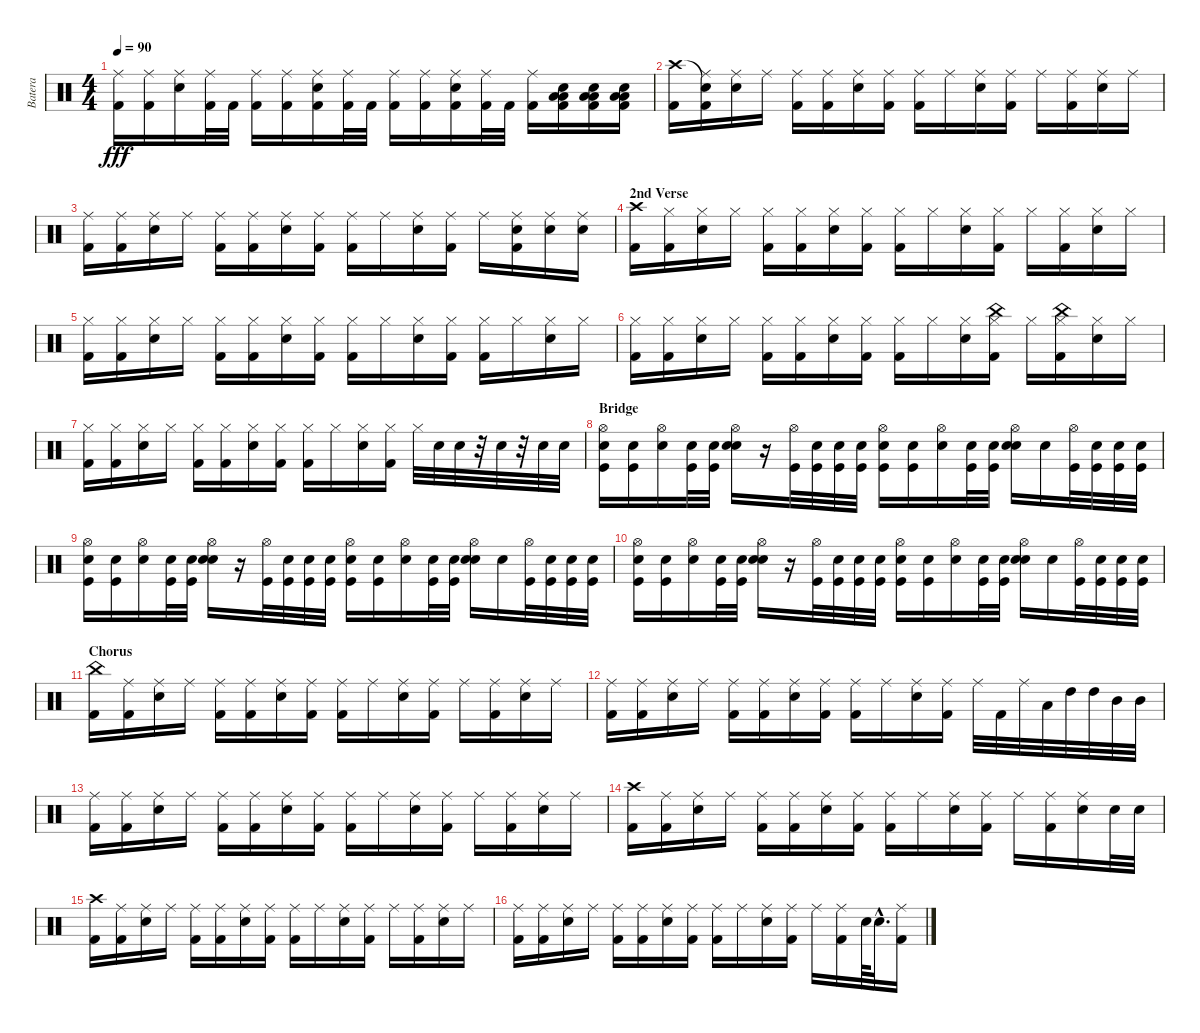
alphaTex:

\track ("Batera" "Batera") {instrument percussion}
\staff {score}
\articulation defaults
\ts (4 4)
\tempo 90
\clef neutral
\ks c
("Kick (hit) 2" "Ride (middle)").16{dy fff} ("Kick (hit) 2" "Ride (middle)").16 ("Snare (hit) 2" "Ride (middle)").16 ("Kick (hit) 2" "Ride (middle)").32 "Kick (hit) 2".32 ("Kick (hit) 2" "Ride (middle)").16 ("Kick (hit) 2" "Ride (middle)").16 ("Snare (hit) 2" "Kick (hit) 2" "Ride (middle)").16 ("Kick (hit) 2" "Ride (middle)").32 "Kick (hit) 2".32 ("Kick (hit) 2" "Ride (middle)").16 ("Kick (hit) 2" "Ride (middle)").16 ("Snare (hit) 2" "Kick (hit) 2" "Ride (middle)").16 ("Kick (hit) 2" "Ride (middle)").32 "Kick (hit) 2".32 ("Kick (hit) 2" "Ride (middle)").16 ("Low Floor Tom (hit)" "Snare (hit) 2" "Kick (hit) 2" "Low Floor Tom (hit)").16 ("Low Floor Tom (hit)" "Snare (hit) 2" "Kick (hit) 2" "Low Floor Tom (hit)").16 ("Low Floor Tom (hit)" "Snare (hit) 2" "Kick (hit) 2" "Low Floor Tom (hit)").16 |
("Crash high (hit)" "Kick (hit) 2").16 ("Snare (hit)"{t} "Kick (hit) 2" "Ride (middle)").16 ("Snare (hit) 2" "Ride (middle)").16 "Ride (middle)".16 ("Kick (hit) 2" "Ride (middle)").16 ("Kick (hit) 2" "Ride (middle)").16 ("Snare (hit) 2" "Ride (middle)").16 ("Kick (hit) 2" "Ride (middle)").16 ("Kick (hit) 2" "Ride (middle)").16 "Ride (middle)".16 ("Snare (hit) 2" "Ride (middle)").16 ("Kick (hit) 2" "Ride (middle)").16 "Ride (middle)".16 ("Kick (hit) 2" "Ride (middle)").16 ("Snare (hit) 2" "Ride (middle)").16 "Ride (middle)".16 |
("Kick (hit) 2" "Ride (middle)").16 ("Kick (hit) 2" "Ride (middle)").16 ("Snare (hit) 2" "Ride (middle)").16 "Ride (middle)".16 ("Kick (hit) 2" "Ride (middle)").16 ("Kick (hit) 2" "Ride (middle)").16 ("Snare (hit) 2" "Ride (middle)").16 ("Kick (hit) 2" "Ride (middle)").16 ("Kick (hit) 2" "Ride (middle)").16 "Ride (middle)".16 ("Snare (hit) 2" "Ride (middle)").16 ("Kick (hit) 2" "Ride (middle)").16 "Ride (middle)".16 ("Snare (hit) 2" "Kick (hit) 2" "Ride (middle)").16 ("Snare (hit) 2" "Ride (middle)").16 ("Snare (hit) 2" "Ride (middle)").16 |
\section ("" "2nd Verse")
("Crash high (hit)" "Kick (hit) 2").16 ("Kick (hit) 2" "Hi-Hat (closed)").16 ("Snare (hit) 2" "Hi-Hat (closed)").16 "Hi-Hat (closed)".16 ("Kick (hit) 2" "Hi-Hat (closed)").16 ("Kick (hit) 2" "Hi-Hat (closed)").16 ("Snare (hit) 2" "Hi-Hat (closed)").16 ("Kick (hit) 2" "Hi-Hat (closed)").16 ("Kick (hit) 2" "Hi-Hat (closed)").16 "Hi-Hat (closed)".16 ("Snare (hit) 2" "Hi-Hat (closed)").16 ("Kick (hit) 2" "Hi-Hat (closed)").16 "Hi-Hat (closed)".16 ("Kick (hit) 2" "Hi-Hat (closed)").16 ("Snare (hit) 2" "Hi-Hat (closed)").16 "Hi-Hat (closed)".16 |
("Kick (hit) 2" "Hi-Hat (closed)").16 ("Kick (hit) 2" "Hi-Hat (closed)").16 ("Snare (hit) 2" "Hi-Hat (closed)").16 "Hi-Hat (closed)".16 ("Kick (hit) 2" "Hi-Hat (closed)").16 ("Kick (hit) 2" "Hi-Hat (closed)").16 ("Snare (hit) 2" "Hi-Hat (closed)").16 ("Kick (hit) 2" "Hi-Hat (closed)").16 ("Kick (hit) 2" "Hi-Hat (closed)").16 "Hi-Hat (closed)".16 ("Snare (hit) 2" "Hi-Hat (closed)").16 ("Kick (hit) 2" "Hi-Hat (closed)").16 ("Kick (hit) 2" "Hi-Hat (closed)").16 "Hi-Hat (closed)".16 ("Snare (hit) 2" "Hi-Hat (closed)").16 "Hi-Hat (closed)".16 |
("Kick (hit) 2" "Hi-Hat (closed)").16 ("Kick (hit) 2" "Hi-Hat (closed)").16 ("Snare (hit) 2" "Hi-Hat (closed)").16 "Hi-Hat (closed)".16 ("Kick (hit) 2" "Hi-Hat (closed)").16 ("Kick (hit) 2" "Hi-Hat (closed)").16 ("Snare (hit) 2" "Hi-Hat (closed)").16 ("Kick (hit) 2" "Hi-Hat (closed)").16 ("Kick (hit) 2" "Hi-Hat (closed)").16 "Hi-Hat (closed)".16 ("Snare (hit) 2" "Hi-Hat (closed)").16 ("China (hit)" "Kick (hit) 2" "Hi-Hat (closed)").16 "Hi-Hat (closed)".16 ("China (hit)" "Kick (hit) 2" "Hi-Hat (closed)").16 ("Snare (hit) 2" "Hi-Hat (closed)").16 "Hi-Hat (closed)".16 |
("Kick (hit) 2" "Hi-Hat (closed)").16 ("Kick (hit) 2" "Hi-Hat (closed)").16 ("Snare (hit) 2" "Hi-Hat (closed)").16 "Hi-Hat (closed)".16 ("Kick (hit) 2" "Hi-Hat (closed)").16 ("Kick (hit) 2" "Hi-Hat (closed)").16 ("Snare (hit) 2" "Hi-Hat (closed)").16 ("Kick (hit) 2" "Hi-Hat (closed)").16 ("Kick (hit) 2" "Hi-Hat (closed)").16 "Hi-Hat (closed)".16 ("Snare (hit) 2" "Hi-Hat (closed)").16 ("Kick (hit) 2" "Hi-Hat (closed)").16 "Hi-Hat (closed)".32 "Snare (hit) 2".32 "Snare (hit) 2".32 r.32 "Snare (hit) 2".32 r.32 "Snare (hit) 2".32 "Snare (hit) 2".32 |
\section ("" "Bridge")
("Snare (hit)" "Kick (hit)" "Hi-Hat (open)").16 ("Snare (hit)" "Kick (hit)").16 ("Snare (hit)" "Hi-Hat (open)").16 ("Snare (hit)" "Kick (hit)").32 ("Snare (hit)" "Kick (hit)").32 ("Snare (hit)" "Snare (hit) 2" "Hi-Hat (open)").16 r.16 ("Kick (hit)" "Hi-Hat (open)").32 ("Snare (hit)" "Kick (hit)").32 ("Snare (hit)" "Kick (hit)").32 ("Snare (hit)" "Kick (hit)").32 ("Snare (hit)" "Kick (hit)" "Hi-Hat (open)").16 ("Snare (hit)" "Kick (hit)").16 ("Snare (hit)" "Hi-Hat (open)").16 ("Snare (hit)" "Kick (hit)").32 ("Snare (hit)" "Kick (hit)").32 ("Snare (hit)" "Snare (hit) 2" "Hi-Hat (open)").16 "Snare (hit) 2".16 ("Kick (hit)" "Hi-Hat (open)").32 ("Snare (hit)" "Kick (hit)").32 ("Snare (hit)" "Kick (hit)").32 ("Snare (hit)" "Kick (hit)").32 |
("Snare (hit)" "Kick (hit)" "Hi-Hat (open)").16 ("Snare (hit)" "Kick (hit)").16 ("Snare (hit)" "Hi-Hat (open)").16 ("Snare (hit)" "Kick (hit)").32 ("Snare (hit)" "Kick (hit)").32 ("Snare (hit)" "Snare (hit) 2" "Hi-Hat (open)").16 r.16 ("Kick (hit)" "Hi-Hat (open)").32 ("Snare (hit)" "Kick (hit)").32 ("Snare (hit)" "Kick (hit)").32 ("Snare (hit)" "Kick (hit)").32 ("Snare (hit)" "Kick (hit)" "Hi-Hat (open)").16 ("Snare (hit)" "Kick (hit)").16 ("Snare (hit)" "Hi-Hat (open)").16 ("Snare (hit)" "Kick (hit)").32 ("Snare (hit)" "Kick (hit)").32 ("Snare (hit)" "Snare (hit) 2" "Hi-Hat (open)").16 "Snare (hit) 2".16 ("Kick (hit)" "Hi-Hat (open)").32 ("Snare (hit)" "Kick (hit)").32 ("Snare (hit)" "Kick (hit)").32 ("Snare (hit)" "Kick (hit)").32 |
("Snare (hit)" "Kick (hit)" "Hi-Hat (open)").16 ("Snare (hit)" "Kick (hit)").16 ("Snare (hit)" "Hi-Hat (open)").16 ("Snare (hit)" "Kick (hit)").32 ("Snare (hit)" "Kick (hit)").32 ("Snare (hit)" "Snare (hit) 2" "Hi-Hat (open)").16 r.16 ("Kick (hit)" "Hi-Hat (open)").32 ("Snare (hit)" "Kick (hit)").32 ("Snare (hit)" "Kick (hit)").32 ("Snare (hit)" "Kick (hit)").32 ("Snare (hit)" "Kick (hit)" "Hi-Hat (open)").16 ("Snare (hit)" "Kick (hit)").16 ("Snare (hit)" "Hi-Hat (open)").16 ("Snare (hit)" "Kick (hit)").32 ("Snare (hit)" "Kick (hit)").32 ("Snare (hit)" "Snare (hit) 2" "Hi-Hat (open)").16 "Snare (hit) 2".16 ("Kick (hit)" "Hi-Hat (open)").32 ("Snare (hit)" "Kick (hit)").32 ("Snare (hit)" "Kick (hit)").32 ("Snare (hit)" "Kick (hit)").32 |
\section ("" "Chorus")
("China (hit)" "Kick (hit) 2").16 ("Kick (hit) 2" "Ride (middle)").16 ("Snare (hit) 2" "Ride (middle)").16 "Ride (middle)".16 ("Kick (hit) 2" "Ride (middle)").16 ("Kick (hit) 2" "Ride (middle)").16 ("Snare (hit) 2" "Ride (middle)").16 ("Kick (hit) 2" "Ride (middle)").16 ("Kick (hit) 2" "Ride (middle)").16 "Ride (middle)".16 ("Snare (hit) 2" "Ride (middle)").16 ("Kick (hit) 2" "Ride (middle)").16 "Ride (middle)".16 ("Kick (hit) 2" "Ride (middle)").16 ("Snare (hit) 2" "Ride (middle)").16 "Ride (middle)".16 |
("Kick (hit) 2" "Ride (middle)").16 ("Kick (hit) 2" "Ride (middle)").16 ("Snare (hit) 2" "Ride (middle)").16 "Ride (middle)".16 ("Kick (hit) 2" "Ride (middle)").16 ("Kick (hit) 2" "Ride (middle)").16 ("Snare (hit) 2" "Ride (middle)").16 ("Kick (hit) 2" "Ride (middle)").16 ("Kick (hit) 2" "Ride (middle)").16 "Ride (middle)".16 ("Snare (hit) 2" "Ride (middle)").16 ("Kick (hit) 2" "Ride (middle)").16 "Ride (middle)".32 "Kick (hit) 2".32 "Ride (middle)".32 "Low Floor Tom (hit)".32 "High Tom (hit)".32 "High Tom (hit)".32 "Mid Tom (hit)".32 "Mid Tom (hit)".32 |
("Kick (hit) 2" "Ride (middle)").16 ("Kick (hit) 2" "Ride (middle)").16 ("Snare (hit) 2" "Ride (middle)").16 "Ride (middle)".16 ("Kick (hit) 2" "Ride (middle)").16 ("Kick (hit) 2" "Ride (middle)").16 ("Snare (hit) 2" "Ride (middle)").16 ("Kick (hit) 2" "Ride (middle)").16 ("Kick (hit) 2" "Ride (middle)").16 "Ride (middle)".16 ("Snare (hit) 2" "Ride (middle)").16 ("Kick (hit) 2" "Ride (middle)").16 "Ride (middle)".16 ("Kick (hit) 2" "Ride (middle)").16 ("Snare (hit) 2" "Ride (middle)").16 "Ride (middle)".16 |
("Crash high (hit)" "Kick (hit) 2").16 ("Kick (hit) 2" "Ride (middle)").16 ("Snare (hit) 2" "Ride (middle)").16 "Ride (middle)".16 ("Kick (hit) 2" "Ride (middle)").16 ("Kick (hit) 2" "Ride (middle)").16 ("Snare (hit) 2" "Ride (middle)").16 ("Kick (hit) 2" "Ride (middle)").16 ("Kick (hit) 2" "Ride (middle)").16 "Ride (middle)".16 ("Snare (hit) 2" "Ride (middle)").16 ("Kick (hit) 2" "Ride (middle)").16 "Ride (middle)".16 ("Kick (hit) 2" "Ride (middle)").16 ("Snare (hit) 2" "Ride (middle)").16 "Snare (hit) 2".32 "Snare (hit) 2".32 |
("Crash high (hit)" "Kick (hit) 2").16 ("Kick (hit) 2" "Ride (middle)").16 ("Snare (hit) 2" "Ride (middle)").16 "Ride (middle)".16 ("Kick (hit) 2" "Ride (middle)").16 ("Kick (hit) 2" "Ride (middle)").16 ("Snare (hit) 2" "Ride (middle)").16 ("Kick (hit) 2" "Ride (middle)").16 ("Kick (hit) 2" "Ride (middle)").16 "Ride (middle)".16 ("Snare (hit) 2" "Ride (middle)").16 ("Kick (hit) 2" "Ride (middle)").16 "Ride (middle)".16 ("Kick (hit) 2" "Ride (middle)").16 ("Snare (hit) 2" "Ride (middle)").16 "Ride (middle)".16 |
("Kick (hit) 2" "Ride (middle)").16 ("Kick (hit) 2" "Ride (middle)").16 ("Snare (hit) 2" "Ride (middle)").16 "Ride (middle)".16 ("Kick (hit) 2" "Ride (middle)").16 ("Kick (hit) 2" "Ride (middle)").16 ("Snare (hit) 2" "Ride (middle)").16 ("Kick (hit) 2" "Ride (middle)").16 ("Kick (hit) 2" "Ride (middle)").16 "Ride (middle)".16 ("Snare (hit) 2" "Ride (middle)").16 ("Kick (hit) 2" "Ride (middle)").16 "Ride (middle)".16 ("Kick (hit) 2" "Ride (middle)").16 "Snare (hit) 2".64 "Snare (hit) 2"{hac}.32{d} ("Kick (hit) 2" "Ride (middle)").16
